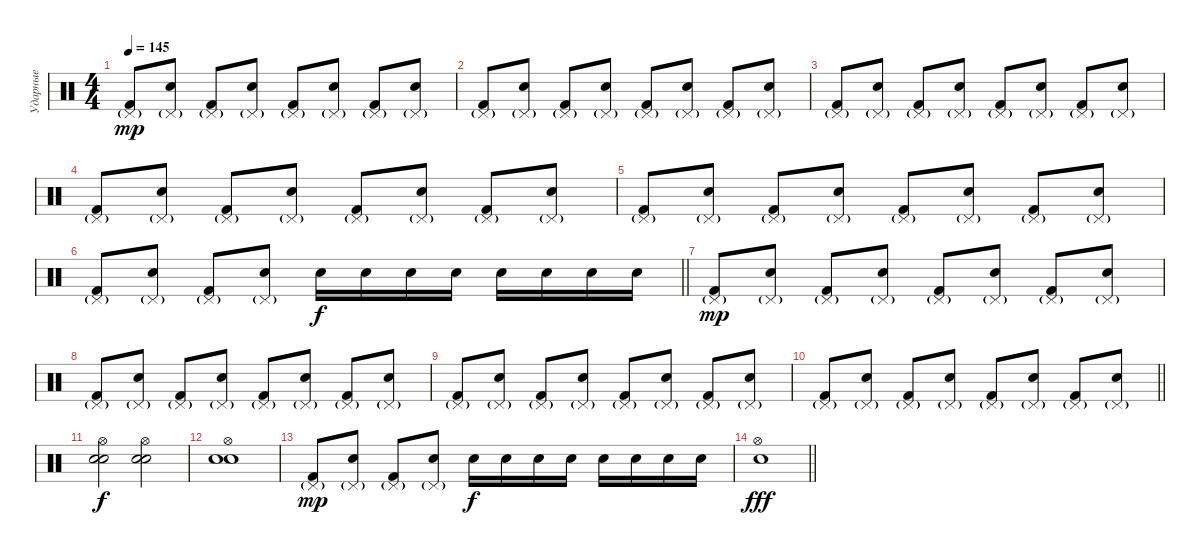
\track ("Ударные" "Ударные") {instrument percussion}
\staff {score}
\articulation defaults
\ts (4 4)
\tempo 145
\clef neutral
\ks c
("Pedal Hi-Hat (hit)"{g} "Kick (hit) 2").8{dy mp} ("Pedal Hi-Hat (hit)"{g} "Electric Snare (hit)").8 ("Pedal Hi-Hat (hit)"{g} "Kick (hit) 2").8 ("Pedal Hi-Hat (hit)"{g} "Electric Snare (hit)").8 ("Pedal Hi-Hat (hit)"{g} "Kick (hit) 2").8 ("Pedal Hi-Hat (hit)"{g} "Electric Snare (hit)").8 ("Pedal Hi-Hat (hit)"{g} "Kick (hit) 2").8 ("Pedal Hi-Hat (hit)"{g} "Electric Snare (hit)").8 |
("Pedal Hi-Hat (hit)"{g} "Kick (hit) 2").8 ("Pedal Hi-Hat (hit)"{g} "Electric Snare (hit)").8 ("Pedal Hi-Hat (hit)"{g} "Kick (hit) 2").8 ("Pedal Hi-Hat (hit)"{g} "Electric Snare (hit)").8 ("Pedal Hi-Hat (hit)"{g} "Kick (hit) 2").8 ("Pedal Hi-Hat (hit)"{g} "Electric Snare (hit)").8 ("Pedal Hi-Hat (hit)"{g} "Kick (hit) 2").8 ("Pedal Hi-Hat (hit)"{g} "Electric Snare (hit)").8 |
("Pedal Hi-Hat (hit)"{g} "Kick (hit) 2").8 ("Pedal Hi-Hat (hit)"{g} "Electric Snare (hit)").8 ("Pedal Hi-Hat (hit)"{g} "Kick (hit) 2").8 ("Pedal Hi-Hat (hit)"{g} "Electric Snare (hit)").8 ("Pedal Hi-Hat (hit)"{g} "Kick (hit) 2").8 ("Pedal Hi-Hat (hit)"{g} "Electric Snare (hit)").8 ("Pedal Hi-Hat (hit)"{g} "Kick (hit) 2").8 ("Pedal Hi-Hat (hit)"{g} "Electric Snare (hit)").8 |
("Pedal Hi-Hat (hit)"{g} "Kick (hit) 2").8 ("Pedal Hi-Hat (hit)"{g} "Electric Snare (hit)").8 ("Pedal Hi-Hat (hit)"{g} "Kick (hit) 2").8 ("Pedal Hi-Hat (hit)"{g} "Electric Snare (hit)").8 ("Pedal Hi-Hat (hit)"{g} "Kick (hit) 2").8 ("Pedal Hi-Hat (hit)"{g} "Electric Snare (hit)").8 ("Pedal Hi-Hat (hit)"{g} "Kick (hit) 2").8 ("Pedal Hi-Hat (hit)"{g} "Electric Snare (hit)").8 |
("Pedal Hi-Hat (hit)"{g} "Kick (hit) 2").8 ("Pedal Hi-Hat (hit)"{g} "Electric Snare (hit)").8 ("Pedal Hi-Hat (hit)"{g} "Kick (hit) 2").8 ("Pedal Hi-Hat (hit)"{g} "Electric Snare (hit)").8 ("Pedal Hi-Hat (hit)"{g} "Kick (hit) 2").8 ("Pedal Hi-Hat (hit)"{g} "Electric Snare (hit)").8 ("Pedal Hi-Hat (hit)"{g} "Kick (hit) 2").8 ("Pedal Hi-Hat (hit)"{g} "Electric Snare (hit)").8 |
\barLineRight lightlight
("Pedal Hi-Hat (hit)"{g} "Kick (hit) 2").8 ("Pedal Hi-Hat (hit)"{g} "Electric Snare (hit)").8 ("Pedal Hi-Hat (hit)"{g} "Kick (hit) 2").8 ("Pedal Hi-Hat (hit)"{g} "Electric Snare (hit)").8 "Snare (hit) 2".16{dy f} "Snare (hit) 2".16 "Snare (hit) 2".16 "Snare (hit) 2".16 "Snare (hit) 2".16 "Snare (hit) 2".16 "Snare (hit) 2".16 "Snare (hit) 2".16 |
("Pedal Hi-Hat (hit)"{g} "Kick (hit) 2").8{dy mp} ("Pedal Hi-Hat (hit)"{g} "Electric Snare (hit)").8 ("Pedal Hi-Hat (hit)"{g} "Kick (hit) 2").8 ("Pedal Hi-Hat (hit)"{g} "Electric Snare (hit)").8 ("Pedal Hi-Hat (hit)"{g} "Kick (hit) 2").8 ("Pedal Hi-Hat (hit)"{g} "Electric Snare (hit)").8 ("Pedal Hi-Hat (hit)"{g} "Kick (hit) 2").8 ("Pedal Hi-Hat (hit)"{g} "Electric Snare (hit)").8 |
("Pedal Hi-Hat (hit)"{g} "Kick (hit) 2").8 ("Pedal Hi-Hat (hit)"{g} "Electric Snare (hit)").8 ("Pedal Hi-Hat (hit)"{g} "Kick (hit) 2").8 ("Pedal Hi-Hat (hit)"{g} "Electric Snare (hit)").8 ("Pedal Hi-Hat (hit)"{g} "Kick (hit) 2").8 ("Pedal Hi-Hat (hit)"{g} "Electric Snare (hit)").8 ("Pedal Hi-Hat (hit)"{g} "Kick (hit) 2").8 ("Pedal Hi-Hat (hit)"{g} "Electric Snare (hit)").8 |
("Pedal Hi-Hat (hit)"{g} "Kick (hit) 2").8 ("Pedal Hi-Hat (hit)"{g} "Electric Snare (hit)").8 ("Pedal Hi-Hat (hit)"{g} "Kick (hit) 2").8 ("Pedal Hi-Hat (hit)"{g} "Electric Snare (hit)").8 ("Pedal Hi-Hat (hit)"{g} "Kick (hit) 2").8 ("Pedal Hi-Hat (hit)"{g} "Electric Snare (hit)").8 ("Pedal Hi-Hat (hit)"{g} "Kick (hit) 2").8 ("Pedal Hi-Hat (hit)"{g} "Electric Snare (hit)").8 |
\barLineRight lightlight
("Pedal Hi-Hat (hit)"{g} "Kick (hit) 2").8 ("Pedal Hi-Hat (hit)"{g} "Electric Snare (hit)").8 ("Pedal Hi-Hat (hit)"{g} "Kick (hit) 2").8 ("Pedal Hi-Hat (hit)"{g} "Electric Snare (hit)").8 ("Pedal Hi-Hat (hit)"{g} "Kick (hit) 2").8 ("Pedal Hi-Hat (hit)"{g} "Electric Snare (hit)").8 ("Pedal Hi-Hat (hit)"{g} "Kick (hit) 2").8 ("Pedal Hi-Hat (hit)"{g} "Electric Snare (hit)").8 |
("Hi-Hat (open)" "Electric Snare (hit)" "Snare (hit) 2").2{dy f} ("Hi-Hat (open)" "Electric Snare (hit)" "Snare (hit) 2").2 |
("Hi-Hat (open)" "Electric Snare (hit)" "Snare (hit) 2").1 |
("Pedal Hi-Hat (hit)"{g} "Kick (hit) 2").8{dy mp} ("Pedal Hi-Hat (hit)"{g} "Electric Snare (hit)").8 ("Pedal Hi-Hat (hit)"{g} "Kick (hit) 2").8 ("Pedal Hi-Hat (hit)"{g} "Electric Snare (hit)").8 "Snare (hit) 2".16{dy f} "Snare (hit) 2".16 "Snare (hit) 2".16 "Snare (hit) 2".16 "Snare (hit) 2".16 "Snare (hit) 2".16 "Snare (hit) 2".16 "Snare (hit) 2".16 |
\barLineRight lightlight
("Hi-Hat (open)" "Electric Snare (hit)").1{dy fff}
